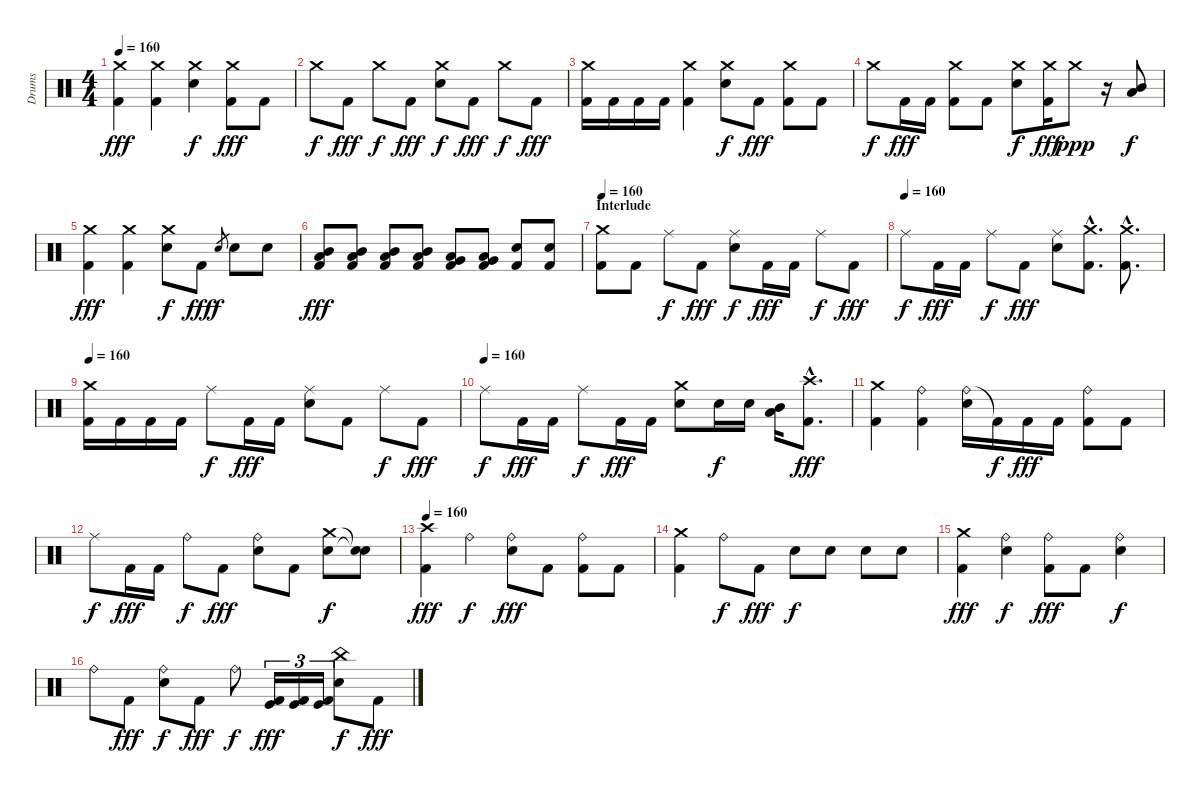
\track ("Drums" "Drums") {instrument percussion}
\staff {score}
\articulation defaults
\ts (4 4)
\tempo 160
\clef neutral
\ks c
("Crash medium (hit)" "Kick (hit) 2").4{dy fff} ("Crash medium (hit)" "Kick (hit) 2").4 ("Crash medium (hit)" "Snare (hit) 2").4{dy f} ("Crash medium (hit)" "Kick (hit) 2").8{dy fff} "Kick (hit) 2".8 |
"Crash medium (hit)".8{dy f} "Kick (hit) 2".8{dy fff} "Crash medium (hit)".8{dy f} "Kick (hit) 2".8{dy fff} ("Crash medium (hit)" "Snare (hit) 2").8{dy f} "Kick (hit) 2".8{dy fff} "Crash medium (hit)".8{dy f} "Kick (hit) 2".8{dy fff} |
("Crash medium (hit)" "Kick (hit) 2").16 "Kick (hit) 2".16 "Kick (hit) 2".16 "Kick (hit) 2".16 ("Crash medium (hit)" "Kick (hit) 2").4 ("Crash medium (hit)" "Snare (hit) 2").8{dy f} "Kick (hit) 2".8{dy fff} ("Crash medium (hit)" "Kick (hit) 2").8 "Kick (hit) 2".8 |
"Crash medium (hit)".8{dy f} "Kick (hit) 2".16{dy fff} "Kick (hit) 2".16 ("Crash medium (hit)" "Kick (hit) 2").8 "Kick (hit) 2".8 ("Crash medium (hit)" "Snare (hit) 2").8{dy f} ("Crash medium (hit)" "Kick (hit) 2").16{dy fff} "Crash medium (hit)".8{dy ppp} r.16 ("Mid Tom (hit)" "Low Tom (hit)").8{dy f} |
("Crash medium (hit)" "Kick (hit) 2").4{dy fff} ("Crash medium (hit)" "Kick (hit) 2").4 ("Crash medium (hit)" "Snare (hit) 2").8{dy f} "Kick (hit) 2".8{dy fff} "Snare (hit) 2".8{gr dy f} "Snare (hit) 2".8 "Snare (hit) 2".8 |
("Mid Tom (hit)" "Low Tom (hit)" "Kick (hit) 2").8{dy fff} ("Mid Tom (hit)" "Low Tom (hit)" "Kick (hit) 2").8 ("Mid Tom (hit)" "Low Tom (hit)" "Kick (hit) 2").8 ("Mid Tom (hit)" "Low Tom (hit)" "Kick (hit) 2").8 ("Low Tom (hit)" "Very Low Tom (hit)" "Kick (hit) 2").8 ("Very Low Tom (hit)" "Low Tom (hit)" "Kick (hit) 2").8 ("Snare (hit) 2" "Kick (hit) 2").8 ("Snare (hit) 2" "Kick (hit) 2").8 |
\section ("" "Interlude")
\tempo 160
("Crash medium (hit)" "Kick (hit) 2").8 "Kick (hit) 2".8 "Ride (middle)".8{dy f} "Kick (hit) 2".8{dy fff} ("Ride (middle)" "Snare (hit) 2").8{dy f} "Kick (hit) 2".16{dy fff} "Kick (hit) 2".16 "Ride (middle)".8{dy f} "Kick (hit) 2".8{dy fff} |
\tempo (160)
"Ride (middle)".8{dy f} "Kick (hit) 2".16{dy fff} "Kick (hit) 2".16 "Ride (middle)".8{dy f} "Kick (hit) 2".8{dy fff} ("Ride (middle)" "Snare (hit) 2").8 ("Crash medium (hit)"{hac} "Kick (hit) 2"{hac}).8{d} ("Crash medium (hit)"{hac} "Kick (hit) 2"{hac}).8{d} |
\tempo 160
("Crash medium (hit)" "Kick (hit) 2").16 "Kick (hit) 2".16 "Kick (hit) 2".16 "Kick (hit) 2".16 "Ride (middle)".8{dy f} "Kick (hit) 2".16{dy fff} "Kick (hit) 2".16 ("Ride (middle)" "Snare (hit) 2").8 "Kick (hit) 2".8 "Ride (middle)".8{dy f} "Kick (hit) 2".8{dy fff} |
\tempo (160)
"Ride (middle)".8{dy f} "Kick (hit) 2".16{dy fff} "Kick (hit) 2".16 "Ride (middle)".8{dy f} "Kick (hit) 2".16{dy fff} "Kick (hit) 2".16 ("Crash medium (hit)" "Snare (hit) 2").8 "Snare (hit) 2".16{dy f} "Snare (hit) 2".16 ("Mid Tom (hit)" "Low Tom (hit)").16 ("Crash high (hit)"{hac} "Kick (hit) 2"{hac}).8{d dy fff} |
("Crash medium (hit)" "Kick (hit) 2").4 ("Ride (bell)" "Kick (hit) 2").4 ("Ride (bell)" "Snare (hit) 2").16 "Kick (hit) 2"{t}.16{dy f} "Kick (hit) 2".16{dy fff} "Kick (hit) 2".16 ("Ride (bell)" "Kick (hit) 2").8 "Kick (hit) 2".8 |
"Ride (middle)".8{dy f} "Kick (hit) 2".16{dy fff} "Kick (hit) 2".16 "Ride (bell)".8{dy f} "Kick (hit) 2".8{dy fff} ("Ride (bell)" "Snare (hit) 2").8 "Kick (hit) 2".8 ("Crash medium (hit)" "Snare (hit) 2").8{dy f} ("Snare (hit)"{t} "Snare (hit)"{t}).8 |
\tempo 160
("Crash high (hit)" "Kick (hit) 2").4{dy fff} "Ride (bell)".4{dy f} ("Ride (bell)" "Snare (hit) 2").8{dy fff} "Kick (hit) 2".8 ("Ride (bell)" "Kick (hit) 2").8 "Kick (hit) 2".8 |
("Crash medium (hit)" "Kick (hit) 2").4 "Ride (bell)".8{dy f} "Kick (hit) 2".8{dy fff} "Snare (hit) 2".8{dy f} "Snare (hit) 2".8 "Snare (hit) 2".8 "Snare (hit) 2".8 |
("Crash medium (hit)" "Kick (hit) 2").4{dy fff} ("Ride (bell)" "Snare (hit) 2").4{dy f} ("Ride (bell)" "Kick (hit) 2").8{dy fff} "Kick (hit) 2".8 ("Ride (bell)" "Snare (hit) 2").4{dy f} |
"Ride (bell)".8 "Kick (hit) 2".8{dy fff} ("Ride (bell)" "Snare (hit) 2").8{dy f} "Kick (hit) 2".8{dy fff} "Ride (bell)".8{dy f} ("Kick (hit)" "Kick (hit) 2").16{tu (3 2) dy fff} ("Kick (hit)" "Kick (hit) 2").16{tu (3 2)} ("Kick (hit)" "Kick (hit) 2").16{tu (3 2)} ("China (hit)" "Snare (hit) 2").8{dy f} "Kick (hit) 2".8{dy fff}
